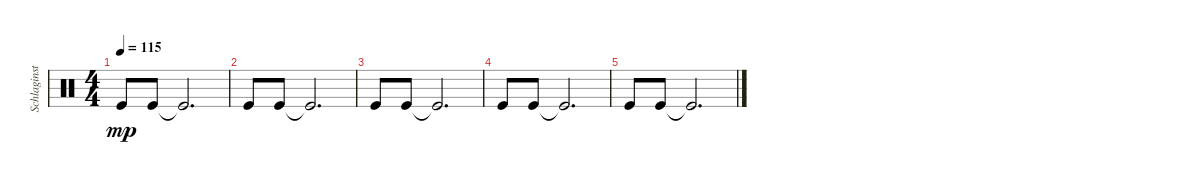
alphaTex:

\track ("Schlaginstrumente - Auswahl" "Schlaginst") {instrument percussion}
\staff {score}
\articulation defaults
\ts (4 4)
\tempo 115
\clef neutral
\ks c "Kick (hit)".8{dy mp} "Kick (hit)".8 "Kick (hit)"{t}.2{d}
|
"Kick (hit)".8 "Kick (hit)".8 "Kick (hit)"{t}.2{d} |
"Kick (hit)".8 "Kick (hit)".8 "Kick (hit)"{t}.2{d} |
"Kick (hit)".8 "Kick (hit)".8 "Kick (hit)"{t}.2{d} |
"Kick (hit)".8 "Kick (hit)".8 "Kick (hit)"{t}.2{d}
